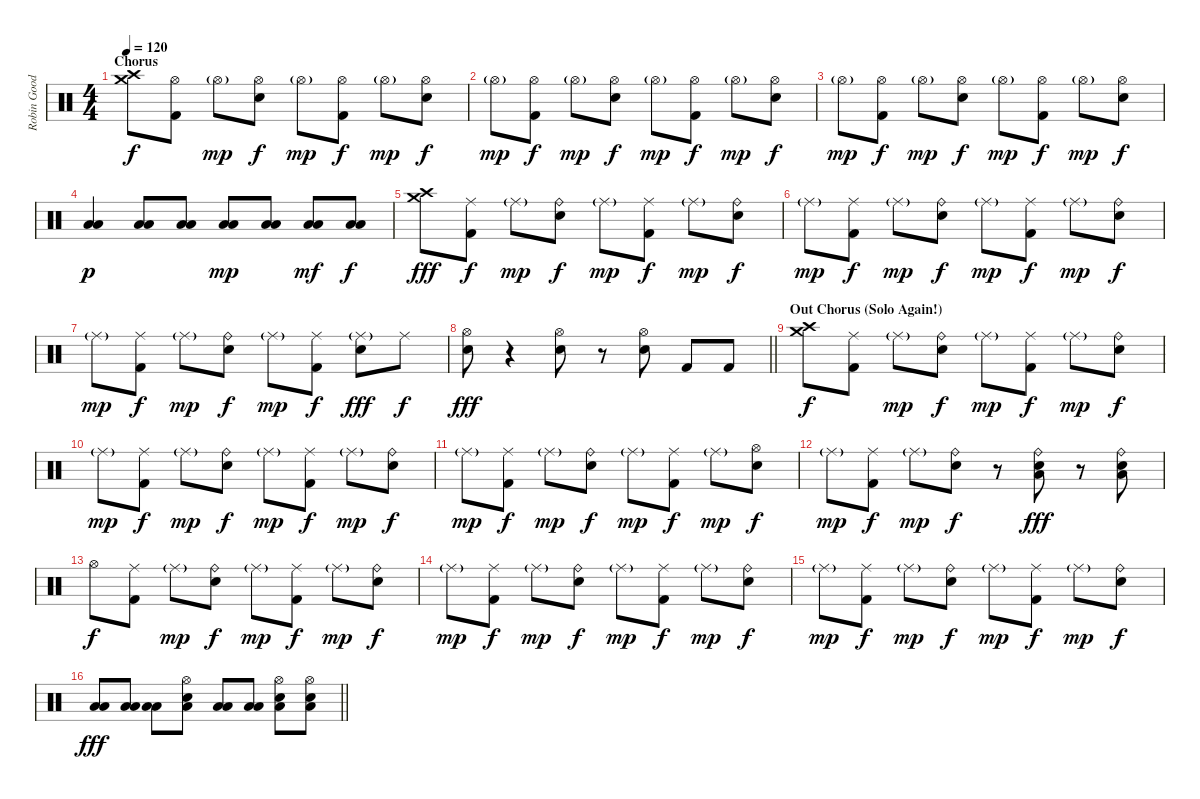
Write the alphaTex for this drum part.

\track ("Robin Goodridge: Drums" "Robin Good") {instrument percussion}
\staff {score}
\articulation defaults
\ts (4 4)
\section ("" "Chorus")
\tempo 120
\clef neutral
\ks c
("Crash high (hit)" "Crash medium (hit)").8{dy f} ("Hi-Hat (open)" "Kick (hit) 2").8 "Hi-Hat (open)"{g}.8{dy mp} ("Hi-Hat (open)" "Electric Snare (hit)").8{dy f} "Hi-Hat (open)"{g}.8{dy mp} ("Hi-Hat (open)" "Kick (hit) 2").8{dy f} "Hi-Hat (open)"{g}.8{dy mp} ("Hi-Hat (open)" "Electric Snare (hit)").8{dy f} |
"Hi-Hat (open)"{g}.8{dy mp} ("Hi-Hat (open)" "Kick (hit) 2").8{dy f} "Hi-Hat (open)"{g}.8{dy mp} ("Hi-Hat (open)" "Electric Snare (hit)").8{dy f} "Hi-Hat (open)"{g}.8{dy mp} ("Hi-Hat (open)" "Kick (hit) 2").8{dy f} "Hi-Hat (open)"{g}.8{dy mp} ("Hi-Hat (open)" "Electric Snare (hit)").8{dy f} |
"Hi-Hat (open)"{g}.8{dy mp} ("Hi-Hat (open)" "Kick (hit) 2").8{dy f} "Hi-Hat (open)"{g}.8{dy mp} ("Hi-Hat (open)" "Electric Snare (hit)").8{dy f} "Hi-Hat (open)"{g}.8{dy mp} ("Hi-Hat (open)" "Kick (hit) 2").8{dy f} "Hi-Hat (open)"{g}.8{dy mp} ("Hi-Hat (open)" "Electric Snare (hit)").8{dy f} |
("Low Tom (hit)" "Low Floor Tom (hit)").4{dy p} ("Low Tom (hit)" "Low Floor Tom (hit)").8 ("Low Tom (hit)" "Low Floor Tom (hit)").8 ("Low Tom (hit)" "Low Floor Tom (hit)").8{dy mp} ("Low Tom (hit)" "Low Floor Tom (hit)").8 ("Low Tom (hit)" "Low Floor Tom (hit)").8{dy mf} ("Low Tom (hit)" "Low Floor Tom (hit)").8{dy f} |
("Crash high (hit)" "Crash medium (hit)").8{dy fff} ("Ride (middle)" "Kick (hit) 2").8{dy f} "Ride (middle)"{g}.8{dy mp} ("Ride (bell)" "Electric Snare (hit)").8{dy f} "Ride (middle)"{g}.8{dy mp} ("Ride (middle)" "Kick (hit) 2").8{dy f} "Ride (middle)"{g}.8{dy mp} ("Ride (bell)" "Electric Snare (hit)").8{dy f} |
"Ride (middle)"{g}.8{dy mp} ("Ride (middle)" "Kick (hit) 2").8{dy f} "Ride (middle)"{g}.8{dy mp} ("Ride (bell)" "Electric Snare (hit)").8{dy f} "Ride (middle)"{g}.8{dy mp} ("Ride (middle)" "Kick (hit) 2").8{dy f} "Ride (middle)"{g}.8{dy mp} ("Ride (bell)" "Electric Snare (hit)").8{dy f} |
"Ride (middle)"{g}.8{dy mp} ("Ride (middle)" "Kick (hit) 2").8{dy f} "Ride (middle)"{g}.8{dy mp} ("Ride (bell)" "Electric Snare (hit)").8{dy f} "Ride (middle)"{g}.8{dy mp} ("Ride (middle)" "Kick (hit) 2").8{dy f} ("Ride (middle)"{g} "Electric Snare (hit)").8{dy fff} "Ride (middle)".8{dy f} |
\barLineRight lightlight
("Hi-Hat (open)" "Electric Snare (hit)").8{dy fff} r.4 ("Hi-Hat (open)" "Electric Snare (hit)").8 r.8 ("Hi-Hat (open)" "Electric Snare (hit)").8 "Kick (hit) 2".8 "Kick (hit) 2".8 |
\section ("" "Out Chorus (Solo Again!)")
("Crash high (hit)" "Crash medium (hit)").8{dy f} ("Ride (middle)" "Kick (hit) 2").8 "Ride (middle)"{g}.8{dy mp} ("Ride (bell)" "Electric Snare (hit)").8{dy f} "Ride (middle)"{g}.8{dy mp} ("Ride (middle)" "Kick (hit) 2").8{dy f} "Ride (middle)"{g}.8{dy mp} ("Ride (bell)" "Electric Snare (hit)").8{dy f} |
"Ride (middle)"{g}.8{dy mp} ("Ride (middle)" "Kick (hit) 2").8{dy f} "Ride (middle)"{g}.8{dy mp} ("Ride (bell)" "Electric Snare (hit)").8{dy f} "Ride (middle)"{g}.8{dy mp} ("Ride (middle)" "Kick (hit) 2").8{dy f} "Ride (middle)"{g}.8{dy mp} ("Ride (bell)" "Electric Snare (hit)").8{dy f} |
"Ride (middle)"{g}.8{dy mp} ("Ride (middle)" "Kick (hit) 2").8{dy f} "Ride (middle)"{g}.8{dy mp} ("Ride (bell)" "Electric Snare (hit)").8{dy f} "Ride (middle)"{g}.8{dy mp} ("Ride (middle)" "Kick (hit) 2").8{dy f} "Ride (middle)"{g}.8{dy mp} ("Hi-Hat (open)" "Electric Snare (hit)").8{dy f} |
"Ride (middle)"{g}.8{dy mp} ("Ride (middle)" "Kick (hit) 2").8{dy f} "Ride (middle)"{g}.8{dy mp} ("Ride (bell)" "Electric Snare (hit)").8{dy f} r.8 ("Ride (bell)" "Low Floor Tom (hit)" "Electric Snare (hit)").8{dy fff} r.8 ("Ride (bell)" "Low Floor Tom (hit)" "Electric Snare (hit)").8 |
"Hi-Hat (open)".8{dy f} ("Ride (middle)" "Kick (hit) 2").8 "Ride (middle)"{g}.8{dy mp} ("Ride (bell)" "Electric Snare (hit)").8{dy f} "Ride (middle)"{g}.8{dy mp} ("Ride (middle)" "Kick (hit) 2").8{dy f} "Ride (middle)"{g}.8{dy mp} ("Ride (bell)" "Electric Snare (hit)").8{dy f} |
"Ride (middle)"{g}.8{dy mp} ("Ride (middle)" "Kick (hit) 2").8{dy f} "Ride (middle)"{g}.8{dy mp} ("Ride (bell)" "Electric Snare (hit)").8{dy f} "Ride (middle)"{g}.8{dy mp} ("Ride (middle)" "Kick (hit) 2").8{dy f} "Ride (middle)"{g}.8{dy mp} ("Ride (bell)" "Electric Snare (hit)").8{dy f} |
"Ride (middle)"{g}.8{dy mp} ("Ride (middle)" "Kick (hit) 2").8{dy f} "Ride (middle)"{g}.8{dy mp} ("Ride (bell)" "Electric Snare (hit)").8{dy f} "Ride (middle)"{g}.8{dy mp} ("Ride (middle)" "Kick (hit) 2").8{dy f} "Ride (middle)"{g}.8{dy mp} ("Ride (bell)" "Electric Snare (hit)").8{dy f} |
\barLineRight lightlight
("Low Tom (hit)" "Low Floor Tom (hit)").8{dy fff} ("Low Tom (hit)" "Low Floor Tom (hit)").8 ("Low Tom (hit)" "Low Floor Tom (hit)").8 ("Hi-Hat (open)" "Electric Snare (hit)" "Low Floor Tom (hit)").8 ("Low Tom (hit)" "Low Floor Tom (hit)").8 ("Low Tom (hit)" "Low Floor Tom (hit)").8 ("Hi-Hat (open)" "Electric Snare (hit)" "Low Floor Tom (hit)").8 ("Hi-Hat (open)" "Electric Snare (hit)" "Low Floor Tom (hit)").8
